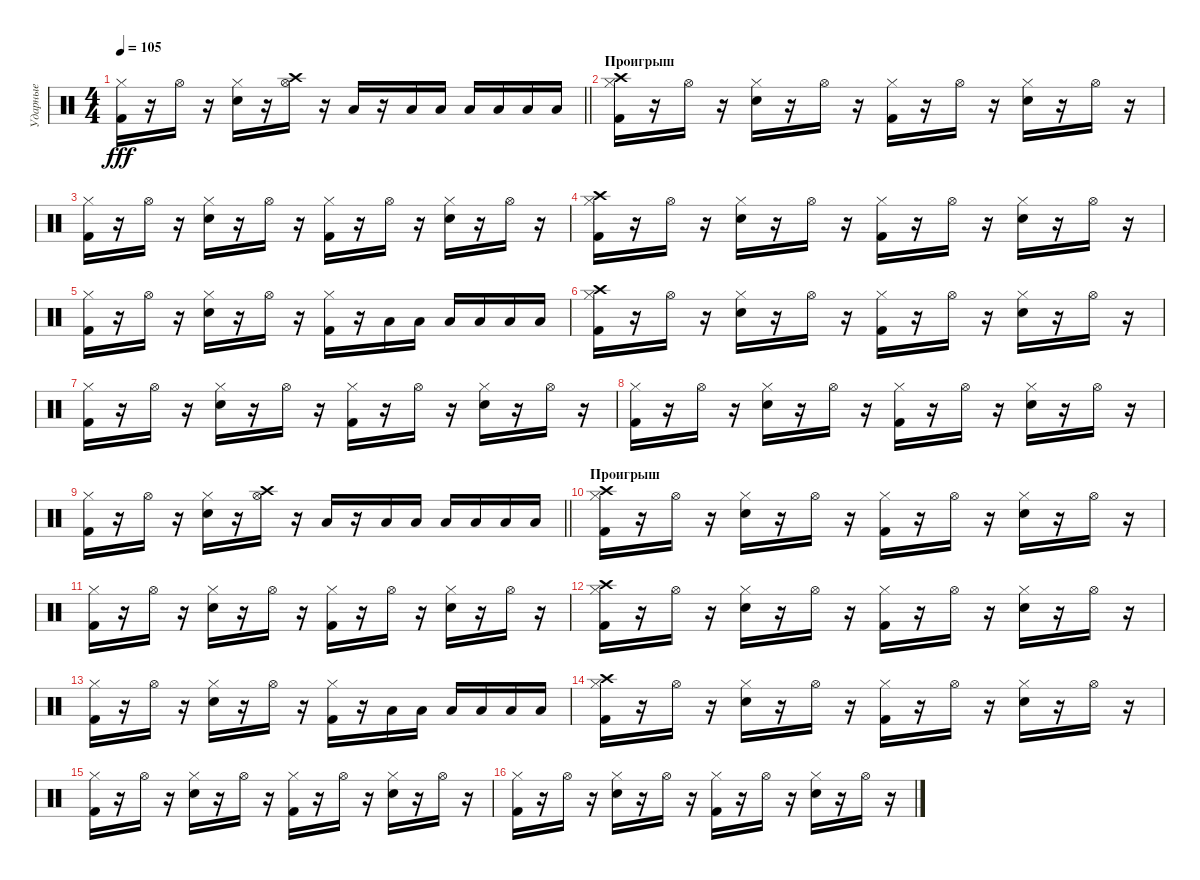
\track ("Ударные" "Ударные") {instrument percussion}
\staff {score}
\articulation defaults
\ts (4 4)
\tempo 105
\clef neutral
\barLineRight lightlight
\ks c
("Kick (hit) 2" "Hi-Hat (closed)").16{dy fff volume 10} r.16 "Hi-Hat (open)".16 r.16 ("Snare (hit) 2" "Hi-Hat (closed)").16 r.16 ("Hi-Hat (open)" "Crash high (hit)").16 r.16 "Low Floor Tom (hit)".16 r.16 "Low Tom (hit)".16 "Low Floor Tom (hit)".16 "Low Tom (hit)".16 "Low Floor Tom (hit)".16 "Low Tom (hit)".16 "Low Floor Tom (hit)".16 |
\section ("" "Проигрыш")
("Kick (hit) 2" "Hi-Hat (closed)" "Crash high (hit)").16{volume 9} r.16 "Hi-Hat (open)".16 r.16 ("Snare (hit) 2" "Hi-Hat (closed)").16 r.16 "Hi-Hat (open)".16 r.16 ("Kick (hit) 2" "Hi-Hat (closed)").16 r.16 "Hi-Hat (open)".16 r.16 ("Snare (hit) 2" "Hi-Hat (closed)").16 r.16 "Hi-Hat (open)".16 r.16 |
("Kick (hit) 2" "Hi-Hat (closed)").16{volume 8} r.16 "Hi-Hat (open)".16 r.16 ("Snare (hit) 2" "Hi-Hat (closed)").16 r.16 "Hi-Hat (open)".16 r.16 ("Kick (hit) 2" "Hi-Hat (closed)").16 r.16 "Hi-Hat (open)".16 r.16 ("Snare (hit) 2" "Hi-Hat (closed)").16 r.16 "Hi-Hat (open)".16 r.16 |
("Kick (hit) 2" "Hi-Hat (closed)" "Crash high (hit)").16{volume 7} r.16 "Hi-Hat (open)".16 r.16 ("Snare (hit) 2" "Hi-Hat (closed)").16 r.16 "Hi-Hat (open)".16 r.16 ("Kick (hit) 2" "Hi-Hat (closed)").16 r.16 "Hi-Hat (open)".16 r.16 ("Snare (hit) 2" "Hi-Hat (closed)").16 r.16 "Hi-Hat (open)".16 r.16 |
("Kick (hit) 2" "Hi-Hat (closed)").16{volume 5} r.16 "Hi-Hat (open)".16 r.16 ("Snare (hit) 2" "Hi-Hat (closed)").16 r.16 "Hi-Hat (open)".16 r.16 ("Kick (hit) 2" "Hi-Hat (closed)").16 r.16 "Low Tom (hit)".16 "Low Floor Tom (hit)".16 "Low Tom (hit)".16 "Low Floor Tom (hit)".16 "Low Tom (hit)".16 "Low Floor Tom (hit)".16 |
("Kick (hit) 2" "Hi-Hat (closed)" "Crash high (hit)").16{volume 3} r.16 "Hi-Hat (open)".16 r.16 ("Snare (hit) 2" "Hi-Hat (closed)").16 r.16 "Hi-Hat (open)".16 r.16 ("Kick (hit) 2" "Hi-Hat (closed)").16 r.16 "Hi-Hat (open)".16 r.16 ("Snare (hit) 2" "Hi-Hat (closed)").16 r.16 "Hi-Hat (open)".16 r.16 |
("Kick (hit) 2" "Hi-Hat (closed)").16{volume 1} r.16 "Hi-Hat (open)".16 r.16 ("Snare (hit) 2" "Hi-Hat (closed)").16 r.16 "Hi-Hat (open)".16 r.16 ("Kick (hit) 2" "Hi-Hat (closed)").16 r.16 "Hi-Hat (open)".16 r.16 ("Snare (hit) 2" "Hi-Hat (closed)").16 r.16 "Hi-Hat (open)".16 r.16 |
("Kick (hit) 2" "Hi-Hat (closed)").16{volume 0} r.16 "Hi-Hat (open)".16 r.16 ("Snare (hit) 2" "Hi-Hat (closed)").16 r.16 "Hi-Hat (open)".16 r.16 ("Kick (hit) 2" "Hi-Hat (closed)").16 r.16 "Hi-Hat (open)".16 r.16 ("Snare (hit) 2" "Hi-Hat (closed)").16 r.16 "Hi-Hat (open)".16 r.16 |
\barLineRight lightlight
("Kick (hit) 2" "Hi-Hat (closed)").16 r.16 "Hi-Hat (open)".16 r.16 ("Snare (hit) 2" "Hi-Hat (closed)").16 r.16 ("Hi-Hat (open)" "Crash high (hit)").16 r.16 "Low Floor Tom (hit)".16 r.16 "Low Tom (hit)".16 "Low Floor Tom (hit)".16 "Low Tom (hit)".16 "Low Floor Tom (hit)".16 "Low Tom (hit)".16 "Low Floor Tom (hit)".16 |
\section ("" "Проигрыш")
("Kick (hit) 2" "Hi-Hat (closed)" "Crash high (hit)").16 r.16 "Hi-Hat (open)".16 r.16 ("Snare (hit) 2" "Hi-Hat (closed)").16 r.16 "Hi-Hat (open)".16 r.16 ("Kick (hit) 2" "Hi-Hat (closed)").16 r.16 "Hi-Hat (open)".16 r.16 ("Snare (hit) 2" "Hi-Hat (closed)").16 r.16 "Hi-Hat (open)".16 r.16 |
("Kick (hit) 2" "Hi-Hat (closed)").16 r.16 "Hi-Hat (open)".16 r.16 ("Snare (hit) 2" "Hi-Hat (closed)").16 r.16 "Hi-Hat (open)".16 r.16 ("Kick (hit) 2" "Hi-Hat (closed)").16 r.16 "Hi-Hat (open)".16 r.16 ("Snare (hit) 2" "Hi-Hat (closed)").16 r.16 "Hi-Hat (open)".16 r.16 |
("Kick (hit) 2" "Hi-Hat (closed)" "Crash high (hit)").16 r.16 "Hi-Hat (open)".16 r.16 ("Snare (hit) 2" "Hi-Hat (closed)").16 r.16 "Hi-Hat (open)".16 r.16 ("Kick (hit) 2" "Hi-Hat (closed)").16 r.16 "Hi-Hat (open)".16 r.16 ("Snare (hit) 2" "Hi-Hat (closed)").16 r.16 "Hi-Hat (open)".16 r.16 |
("Kick (hit) 2" "Hi-Hat (closed)").16 r.16 "Hi-Hat (open)".16 r.16 ("Snare (hit) 2" "Hi-Hat (closed)").16 r.16 "Hi-Hat (open)".16 r.16 ("Kick (hit) 2" "Hi-Hat (closed)").16 r.16 "Low Tom (hit)".16 "Low Floor Tom (hit)".16 "Low Tom (hit)".16 "Low Floor Tom (hit)".16 "Low Tom (hit)".16 "Low Floor Tom (hit)".16 |
("Kick (hit) 2" "Hi-Hat (closed)" "Crash high (hit)").16 r.16 "Hi-Hat (open)".16 r.16 ("Snare (hit) 2" "Hi-Hat (closed)").16 r.16 "Hi-Hat (open)".16 r.16 ("Kick (hit) 2" "Hi-Hat (closed)").16 r.16 "Hi-Hat (open)".16 r.16 ("Snare (hit) 2" "Hi-Hat (closed)").16 r.16 "Hi-Hat (open)".16 r.16 |
("Kick (hit) 2" "Hi-Hat (closed)").16 r.16 "Hi-Hat (open)".16 r.16 ("Snare (hit) 2" "Hi-Hat (closed)").16 r.16 "Hi-Hat (open)".16 r.16 ("Kick (hit) 2" "Hi-Hat (closed)").16 r.16 "Hi-Hat (open)".16 r.16 ("Snare (hit) 2" "Hi-Hat (closed)").16 r.16 "Hi-Hat (open)".16 r.16 |
("Kick (hit) 2" "Hi-Hat (closed)").16 r.16 "Hi-Hat (open)".16 r.16 ("Snare (hit) 2" "Hi-Hat (closed)").16 r.16 "Hi-Hat (open)".16 r.16 ("Kick (hit) 2" "Hi-Hat (closed)").16 r.16 "Hi-Hat (open)".16 r.16 ("Snare (hit) 2" "Hi-Hat (closed)").16 r.16 "Hi-Hat (open)".16 r.16
